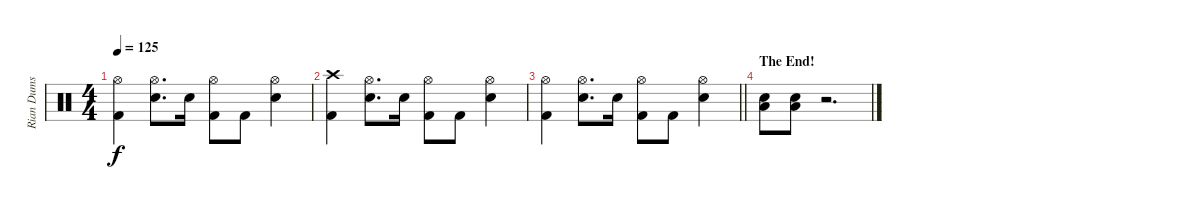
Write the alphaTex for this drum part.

\track ("Rian Dums" "Rian Dums") {instrument percussion}
\staff {score}
\articulation defaults
\ts (4 4)
\tempo 125
\clef neutral
\ks c
("Hi-Hat (open)" "Kick (hit) 2").4{dy f} ("Hi-Hat (open)" "Snare (hit) 2").8{d} "Snare (hit) 2".16 ("Hi-Hat (open)" "Kick (hit) 2").8 "Kick (hit) 2".8 ("Hi-Hat (open)" "Snare (hit) 2").4 |
("Crash high (hit)" "Kick (hit) 2").4 ("Hi-Hat (open)" "Snare (hit) 2").8{d} "Snare (hit) 2".16 ("Hi-Hat (open)" "Kick (hit) 2").8 "Kick (hit) 2".8 ("Hi-Hat (open)" "Snare (hit) 2").4 |
\barLineRight lightlight
("Hi-Hat (open)" "Kick (hit) 2").4 ("Hi-Hat (open)" "Snare (hit) 2").8{d} "Snare (hit) 2".16 ("Hi-Hat (open)" "Kick (hit) 2").8 "Kick (hit) 2".8 ("Hi-Hat (open)" "Snare (hit) 2").4 |
\section ("" "The End!")
("Low Floor Tom (hit)" "Snare (hit) 2").8 ("Low Floor Tom (hit)" "Snare (hit) 2").8 r.2{d}
